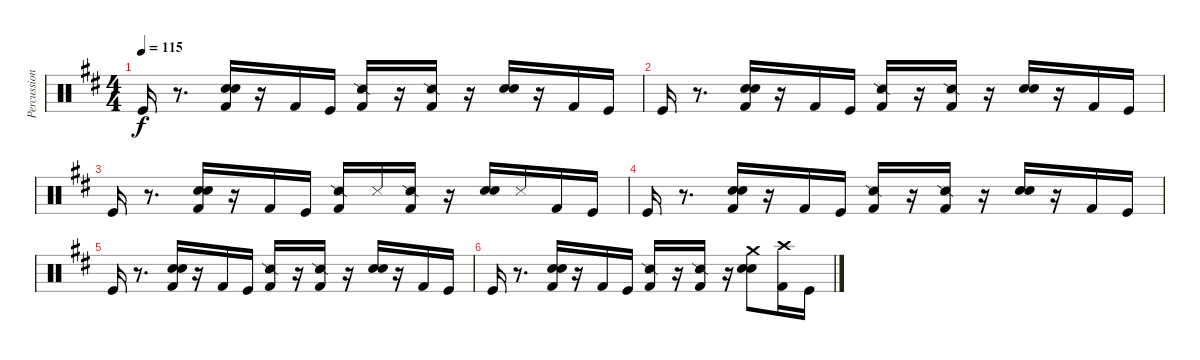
\track ("Percussions" "Percussion") {instrument percussion}
\staff {score}
\articulation defaults
\ts (4 4)
\tempo 115
\clef neutral
\ks bminor "Kick (hit)".16{dy f}
r.8{d} ("Hand Clap (hit)" "Snare (hit) 2" "Kick (hit) 2").16 r.16 "Kick (hit) 2".16 "Kick (hit)".16 ("Kick (hit) 2" "Snare (side stick) 2").16 r.16 ("Kick (hit) 2" "Snare (side stick) 2").16 r.16 ("Hand Clap (hit)" "Snare (hit) 2").16 r.16 "Kick (hit) 2".16 "Kick (hit)".16 |
"Kick (hit)".16 r.8{d} ("Hand Clap (hit)" "Snare (hit) 2" "Kick (hit) 2").16 r.16 "Kick (hit) 2".16 "Kick (hit)".16 ("Kick (hit) 2" "Snare (side stick) 2").16 r.16 ("Kick (hit) 2" "Snare (side stick) 2").16 r.16 ("Hand Clap (hit)" "Snare (hit) 2").16 r.16 "Kick (hit) 2".16 "Kick (hit)".16 |
"Kick (hit)".16 r.8{d} ("Hand Clap (hit)" "Snare (hit) 2" "Kick (hit) 2").16 r.16 "Kick (hit) 2".16 "Kick (hit)".16 ("Kick (hit) 2" "Snare (side stick) 2").16 "Metronome (hit)".16 ("Kick (hit) 2" "Snare (side stick) 2").16 r.16 ("Hand Clap (hit)" "Snare (hit) 2").16 "Metronome (hit)".16 "Kick (hit) 2".16 "Kick (hit)".16 |
"Kick (hit)".16 r.8{d} ("Hand Clap (hit)" "Snare (hit) 2" "Kick (hit) 2").16 r.16 "Kick (hit) 2".16 "Kick (hit)".16 ("Kick (hit) 2" "Snare (side stick) 2").16 r.16 ("Kick (hit) 2" "Snare (side stick) 2").16 r.16 ("Hand Clap (hit)" "Snare (hit) 2").16 r.16 "Kick (hit) 2".16 "Kick (hit)".16 |
"Kick (hit)".16 r.8{d} ("Hand Clap (hit)" "Snare (hit) 2" "Kick (hit) 2").16 r.16 "Kick (hit) 2".16 "Kick (hit)".16 ("Kick (hit) 2" "Snare (side stick) 2").16 r.16 ("Kick (hit) 2" "Snare (side stick) 2").16 r.16 ("Hand Clap (hit)" "Snare (hit) 2").16 r.16 "Kick (hit) 2".16 "Kick (hit)".16 |
"Kick (hit)".16 r.8{d} ("Hand Clap (hit)" "Snare (hit) 2" "Kick (hit) 2").16 r.16 "Kick (hit) 2".16 "Kick (hit)".16 ("Kick (hit) 2" "Snare (side stick) 2").16 r.16 ("Kick (hit) 2" "Snare (side stick) 2").16 r.16 ("Crash medium (hit)" "Hand Clap (hit)" "Snare (hit) 2").8 ("Crash high (hit)" "Kick (hit) 2").16 "Kick (hit)".16
